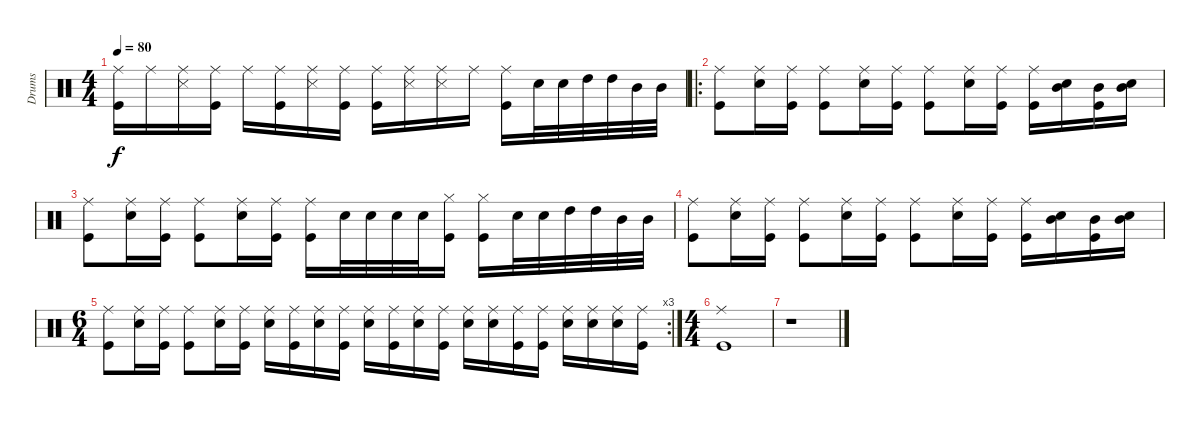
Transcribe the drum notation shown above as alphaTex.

\track ("Drums" "Drums") {instrument percussion}
\staff {score}
\articulation defaults
\ts (4 4)
\tempo 80
\clef neutral
\ks c
("Ride (middle)" "Kick (hit)").16{dy f} "Ride (middle)".16 ("Ride (middle)" "Snare (side stick) 3").16 ("Ride (middle)" "Kick (hit)").16 "Ride (middle)".16 ("Ride (middle)" "Kick (hit)").16 ("Ride (middle)" "Snare (side stick) 3").16 ("Ride (middle)" "Kick (hit)").16 ("Ride (middle)" "Kick (hit)").16 ("Ride (middle)" "Snare (side stick) 3").16 ("Ride (middle)" "Snare (side stick) 3").16 "Ride (middle)".16 ("Ride (middle)" "Kick (hit)").16 "Snare (hit) 2".32 "Snare (hit) 2".32 "High Tom (hit)".32 "High Tom (hit)".32 "Mid Tom (hit)".32 "Mid Tom (hit)".32 |
\ro
("Ride (middle)" "Kick (hit)").8 ("Ride (middle)" "Snare (hit) 2").16 ("Ride (middle)" "Kick (hit)").16 ("Ride (middle)" "Kick (hit)").8 ("Ride (middle)" "Snare (hit) 2").16 ("Ride (middle)" "Kick (hit)").16 ("Ride (middle)" "Kick (hit)").8 ("Ride (middle)" "Snare (hit) 2").16 ("Ride (middle)" "Kick (hit)").16 ("Ride (middle)" "Kick (hit)").16 ("Snare (hit) 2" "Mid Tom (hit)").16 ("Mid Tom (hit)" "Kick (hit)").16 ("Snare (hit) 2" "Mid Tom (hit)").16 |
("Ride (middle)" "Kick (hit)").8 ("Ride (middle)" "Snare (hit) 2").16 ("Ride (middle)" "Kick (hit)").16 ("Ride (middle)" "Kick (hit)").8 ("Ride (middle)" "Snare (hit) 2").16 ("Ride (middle)" "Kick (hit)").16 ("Ride (middle)" "Kick (hit)").16 "Snare (hit) 2".32 "Snare (hit) 2".32 "Snare (hit) 2".32 "Snare (hit) 2".32 ("Hi-Hat (closed)" "Kick (hit)").16 ("Hi-Hat (closed)" "Kick (hit)").16 "Snare (hit) 2".32 "Snare (hit) 2".32 "High Tom (hit)".32 "High Tom (hit)".32 "Mid Tom (hit)".32 "Mid Tom (hit)".32 |
("Ride (middle)" "Kick (hit)").8 ("Ride (middle)" "Snare (hit) 2").16 ("Ride (middle)" "Kick (hit)").16 ("Ride (middle)" "Kick (hit)").8 ("Ride (middle)" "Snare (hit) 2").16 ("Ride (middle)" "Kick (hit)").16 ("Ride (middle)" "Kick (hit)").8 ("Ride (middle)" "Snare (hit) 2").16 ("Ride (middle)" "Kick (hit)").16 ("Ride (middle)" "Kick (hit)").16 ("Snare (hit) 2" "Mid Tom (hit)").16 ("Mid Tom (hit)" "Kick (hit)").16 ("Snare (hit) 2" "Mid Tom (hit)").16 |
\rc 3
\ts (6 4)
("Ride (middle)" "Kick (hit)").8 ("Ride (middle)" "Snare (hit) 2").16 ("Ride (middle)" "Kick (hit)").16 ("Ride (middle)" "Kick (hit)").8 ("Ride (middle)" "Snare (hit) 2").16 ("Ride (middle)" "Kick (hit)").16 ("Ride (middle)" "Snare (hit) 2").16 ("Ride (middle)" "Kick (hit)").16 ("Ride (middle)" "Snare (hit) 2").16 ("Ride (middle)" "Kick (hit)").16 ("Ride (middle)" "Snare (hit) 2").16 ("Ride (middle)" "Kick (hit)").16 ("Ride (middle)" "Snare (hit) 2").16 ("Ride (middle)" "Kick (hit)").16 ("Ride (middle)" "Snare (hit) 2").16 ("Ride (middle)" "Snare (hit) 2").16 ("Ride (middle)" "Kick (hit)").16 ("Ride (middle)" "Kick (hit)").16 ("Ride (middle)" "Snare (hit) 2").16 ("Ride (middle)" "Snare (hit) 2").16 ("Ride (middle)" "Snare (hit) 2").16 ("Ride (middle)" "Kick (hit)").16 |
\ts (4 4)
("Ride (middle)" "Kick (hit)").1 |
r.1
